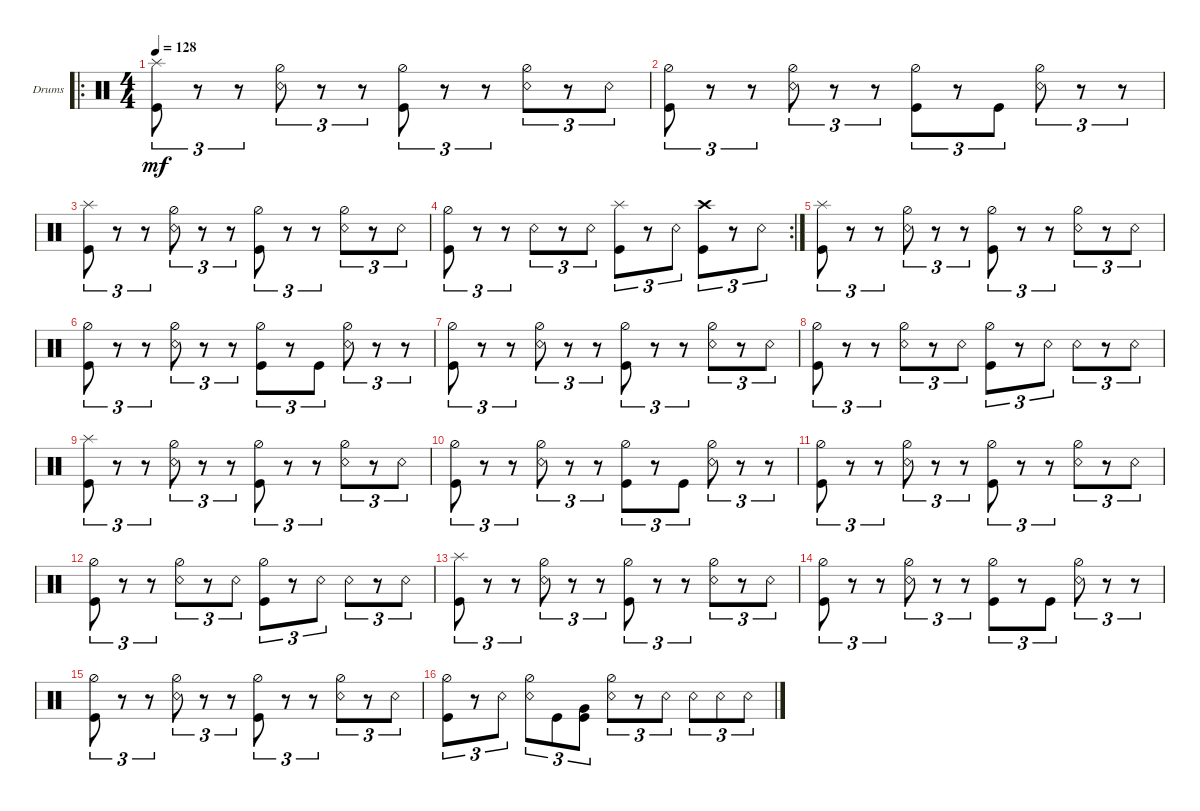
\defaultSystemsLayout 4
\bracketExtendMode groupsimilarinstruments
\firstSystemTrackNameOrientation horizontal
\otherSystemsTrackNameOrientation horizontal
\track ("Drumkit" "Drums") {instrument percussion}
\staff {score}
\articulation defaults
\ro
\ts (4 4)
\tempo 128
\clef neutral
\ks c
("Kick (hit)" "Splash (hit)").8{tu (3 2) dy mf} r.8{tu (3 2)} r.8{tu (3 2)} ("Snare (rim shot)" "Hi-Hat (half)").8{tu (3 2)} r.8{tu (3 2)} r.8{tu (3 2)} ("Kick (hit)" "Hi-Hat (half)").8{tu (3 2)} r.8{tu (3 2)} r.8{tu (3 2)} ("Snare (rim shot)" "Hi-Hat (half)").8{tu (3 2)} r.8{tu (3 2)} "Snare (rim shot)".8{tu (3 2)} |
("Kick (hit)" "Hi-Hat (half)").8{tu (3 2)} r.8{tu (3 2)} r.8{tu (3 2)} ("Snare (rim shot)" "Hi-Hat (half)").8{tu (3 2)} r.8{tu (3 2)} r.8{tu (3 2)} ("Kick (hit)" "Hi-Hat (half)").8{tu (3 2)} r.8{tu (3 2)} "Kick (hit)".8{tu (3 2)} ("Snare (rim shot)" "Hi-Hat (half)").8{tu (3 2)} r.8{tu (3 2)} r.8{tu (3 2)} |
("Kick (hit)" "Splash (hit)").8{tu (3 2)} r.8{tu (3 2)} r.8{tu (3 2)} ("Snare (rim shot)" "Hi-Hat (half)").8{tu (3 2)} r.8{tu (3 2)} r.8{tu (3 2)} ("Kick (hit)" "Hi-Hat (half)").8{tu (3 2)} r.8{tu (3 2)} r.8{tu (3 2)} ("Snare (rim shot)" "Hi-Hat (half)").8{tu (3 2)} r.8{tu (3 2)} "Snare (rim shot)".8{tu (3 2)} |
\rc 2
("Kick (hit)" "Hi-Hat (half)").8{tu (3 2)} r.8{tu (3 2)} r.8{tu (3 2)} "Snare (rim shot)".8{tu (3 2)} r.8{tu (3 2)} "Snare (rim shot)".8{tu (3 2)} ("Kick (hit)" "Splash (hit)").8{tu (3 2)} r.8{tu (3 2)} "Snare (rim shot)".8{tu (3 2)} ("Kick (hit)" "Crash high (hit)").8{tu (3 2)} r.8{tu (3 2)} "Snare (rim shot)".8{tu (3 2)} |
("Kick (hit)" "Splash (hit)").8{tu (3 2)} r.8{tu (3 2)} r.8{tu (3 2)} ("Snare (rim shot)" "Hi-Hat (half)").8{tu (3 2)} r.8{tu (3 2)} r.8{tu (3 2)} ("Kick (hit)" "Hi-Hat (half)").8{tu (3 2)} r.8{tu (3 2)} r.8{tu (3 2)} ("Snare (rim shot)" "Hi-Hat (half)").8{tu (3 2)} r.8{tu (3 2)} "Snare (rim shot)".8{tu (3 2)} |
("Kick (hit)" "Hi-Hat (half)").8{tu (3 2)} r.8{tu (3 2)} r.8{tu (3 2)} ("Snare (rim shot)" "Hi-Hat (half)").8{tu (3 2)} r.8{tu (3 2)} r.8{tu (3 2)} ("Kick (hit)" "Hi-Hat (half)").8{tu (3 2)} r.8{tu (3 2)} "Kick (hit)".8{tu (3 2)} ("Snare (rim shot)" "Hi-Hat (half)").8{tu (3 2)} r.8{tu (3 2)} r.8{tu (3 2)} |
("Kick (hit)" "Hi-Hat (half)").8{tu (3 2)} r.8{tu (3 2)} r.8{tu (3 2)} ("Snare (rim shot)" "Hi-Hat (half)").8{tu (3 2)} r.8{tu (3 2)} r.8{tu (3 2)} ("Kick (hit)" "Hi-Hat (half)").8{tu (3 2)} r.8{tu (3 2)} r.8{tu (3 2)} ("Snare (rim shot)" "Hi-Hat (half)").8{tu (3 2)} r.8{tu (3 2)} "Snare (rim shot)".8{tu (3 2)} |
("Kick (hit)" "Hi-Hat (half)").8{tu (3 2)} r.8{tu (3 2)} r.8{tu (3 2)} ("Snare (rim shot)" "Hi-Hat (half)").8{tu (3 2)} r.8{tu (3 2)} "Snare (rim shot)".8{tu (3 2)} ("Kick (hit)" "Hi-Hat (half)").8{tu (3 2)} r.8{tu (3 2)} "Snare (rim shot)".8{tu (3 2)} "Snare (rim shot)".8{tu (3 2)} r.8{tu (3 2)} "Snare (rim shot)".8{tu (3 2)} |
("Kick (hit)" "Splash (hit)").8{tu (3 2)} r.8{tu (3 2)} r.8{tu (3 2)} ("Snare (rim shot)" "Hi-Hat (half)").8{tu (3 2)} r.8{tu (3 2)} r.8{tu (3 2)} ("Kick (hit)" "Hi-Hat (half)").8{tu (3 2)} r.8{tu (3 2)} r.8{tu (3 2)} ("Snare (rim shot)" "Hi-Hat (half)").8{tu (3 2)} r.8{tu (3 2)} "Snare (rim shot)".8{tu (3 2)} |
("Kick (hit)" "Hi-Hat (half)").8{tu (3 2)} r.8{tu (3 2)} r.8{tu (3 2)} ("Snare (rim shot)" "Hi-Hat (half)").8{tu (3 2)} r.8{tu (3 2)} r.8{tu (3 2)} ("Kick (hit)" "Hi-Hat (half)").8{tu (3 2)} r.8{tu (3 2)} "Kick (hit)".8{tu (3 2)} ("Snare (rim shot)" "Hi-Hat (half)").8{tu (3 2)} r.8{tu (3 2)} r.8{tu (3 2)} |
("Kick (hit)" "Hi-Hat (half)").8{tu (3 2)} r.8{tu (3 2)} r.8{tu (3 2)} ("Snare (rim shot)" "Hi-Hat (half)").8{tu (3 2)} r.8{tu (3 2)} r.8{tu (3 2)} ("Kick (hit)" "Hi-Hat (half)").8{tu (3 2)} r.8{tu (3 2)} r.8{tu (3 2)} ("Snare (rim shot)" "Hi-Hat (half)").8{tu (3 2)} r.8{tu (3 2)} "Snare (rim shot)".8{tu (3 2)} |
("Kick (hit)" "Hi-Hat (half)").8{tu (3 2)} r.8{tu (3 2)} r.8{tu (3 2)} ("Snare (rim shot)" "Hi-Hat (half)").8{tu (3 2)} r.8{tu (3 2)} "Snare (rim shot)".8{tu (3 2)} ("Kick (hit)" "Hi-Hat (half)").8{tu (3 2)} r.8{tu (3 2)} "Snare (rim shot)".8{tu (3 2)} "Snare (rim shot)".8{tu (3 2)} r.8{tu (3 2)} "Snare (rim shot)".8{tu (3 2)} |
("Kick (hit)" "Splash (hit)").8{tu (3 2)} r.8{tu (3 2)} r.8{tu (3 2)} ("Snare (rim shot)" "Hi-Hat (half)").8{tu (3 2)} r.8{tu (3 2)} r.8{tu (3 2)} ("Kick (hit)" "Hi-Hat (half)").8{tu (3 2)} r.8{tu (3 2)} r.8{tu (3 2)} ("Snare (rim shot)" "Hi-Hat (half)").8{tu (3 2)} r.8{tu (3 2)} "Snare (rim shot)".8{tu (3 2)} |
("Kick (hit)" "Hi-Hat (half)").8{tu (3 2)} r.8{tu (3 2)} r.8{tu (3 2)} ("Snare (rim shot)" "Hi-Hat (half)").8{tu (3 2)} r.8{tu (3 2)} r.8{tu (3 2)} ("Kick (hit)" "Hi-Hat (half)").8{tu (3 2)} r.8{tu (3 2)} "Kick (hit)".8{tu (3 2)} ("Snare (rim shot)" "Hi-Hat (half)").8{tu (3 2)} r.8{tu (3 2)} r.8{tu (3 2)} |
("Kick (hit)" "Hi-Hat (half)").8{tu (3 2)} r.8{tu (3 2)} r.8{tu (3 2)} ("Snare (rim shot)" "Hi-Hat (half)").8{tu (3 2)} r.8{tu (3 2)} r.8{tu (3 2)} ("Kick (hit)" "Hi-Hat (half)").8{tu (3 2)} r.8{tu (3 2)} r.8{tu (3 2)} ("Snare (rim shot)" "Hi-Hat (half)").8{tu (3 2)} r.8{tu (3 2)} "Snare (rim shot)".8{tu (3 2)} |
("Kick (hit)" "Hi-Hat (half)").8{tu (3 2)} r.8{tu (3 2)} "Snare (rim shot)".8{tu (3 2)} ("Snare (rim shot)" "Hi-Hat (half)").8{tu (3 2)} "Kick (hit)".8{tu (3 2)} ("Kick (hit)" "Very Low Tom (hit)").8{tu (3 2)} ("Snare (rim shot)" "Hi-Hat (half)").8{tu (3 2)} r.8{tu (3 2)} "Snare (rim shot)".8{tu (3 2)} "Snare (rim shot)".8{tu (3 2)} "Snare (rim shot)".8{tu (3 2)} "Snare (rim shot)".8{tu (3 2)}
